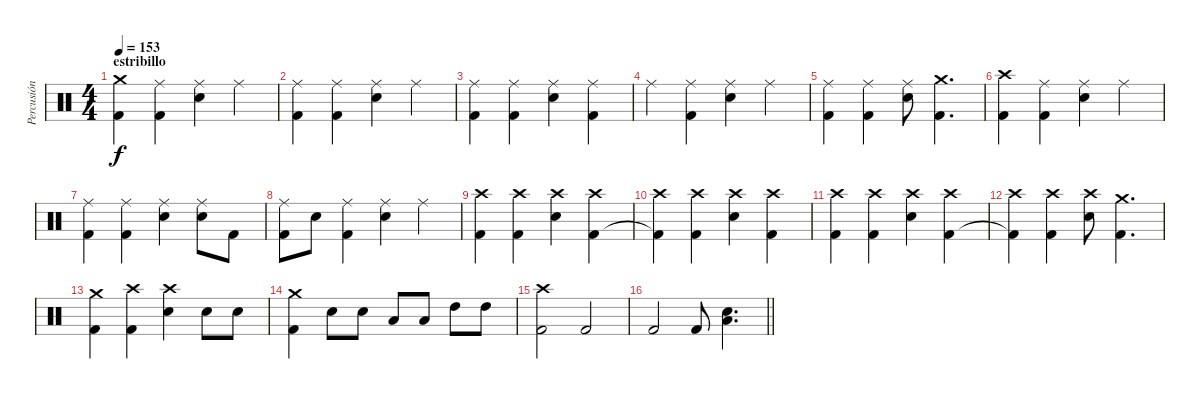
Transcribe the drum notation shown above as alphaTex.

\track ("Percusión" "Percusión") {instrument percussion}
\staff {score}
\articulation defaults
\ts (4 4)
\section ("" "estribillo")
\tempo 153
\clef neutral
\ks c
("Crash medium (hit)" "Kick (hit) 2").4{dy f} ("Ride (middle)" "Kick (hit) 2").4 ("Ride (middle)" "Electric Snare (hit)").4 "Ride (middle)".4 |
("Ride (middle)" "Kick (hit) 2").4 ("Ride (middle)" "Kick (hit) 2").4 ("Ride (middle)" "Electric Snare (hit)").4 "Ride (middle)".4 |
("Ride (middle)" "Kick (hit) 2").4 ("Ride (middle)" "Kick (hit) 2").4 ("Ride (middle)" "Electric Snare (hit)").4 ("Ride (middle)" "Kick (hit) 2").4 |
"Ride (middle)".4 ("Ride (middle)" "Kick (hit) 2").4 ("Ride (middle)" "Electric Snare (hit)").4 "Ride (middle)".4 |
("Ride (middle)" "Kick (hit) 2").4 ("Ride (middle)" "Kick (hit) 2").4 ("Ride (middle)" "Electric Snare (hit)").8 ("Crash medium (hit)" "Kick (hit) 2").4{d} |
("Crash high (hit)" "Kick (hit) 2").4 ("Ride (middle)" "Kick (hit) 2").4 ("Ride (middle)" "Electric Snare (hit)").4 "Ride (middle)".4 |
("Ride (middle)" "Kick (hit) 2").4 ("Ride (middle)" "Kick (hit) 2").4 ("Ride (middle)" "Electric Snare (hit)").4 ("Ride (middle)" "Electric Snare (hit)").8 "Kick (hit) 2".8 |
("Ride (middle)" "Kick (hit) 2").8 "Electric Snare (hit)".8 ("Ride (middle)" "Kick (hit) 2").4 ("Ride (middle)" "Electric Snare (hit)").4 "Ride (middle)".4 |
("Kick (hit) 2" "Crash high (hit)").4 ("Kick (hit) 2" "Crash high (hit)").4 ("Electric Snare (hit)" "Crash high (hit)").4 ("Kick (hit) 2" "Crash high (hit)").4 |
("Kick (hit) 2"{t} "Crash high (hit)").4 ("Kick (hit) 2" "Crash high (hit)").4 ("Electric Snare (hit)" "Crash high (hit)").4 ("Kick (hit) 2" "Crash high (hit)").4 |
("Kick (hit) 2" "Crash high (hit)").4 ("Kick (hit) 2" "Crash high (hit)").4 ("Electric Snare (hit)" "Crash high (hit)").4 ("Kick (hit) 2" "Crash high (hit)").4 |
("Kick (hit) 2"{t} "Crash high (hit)").4 ("Kick (hit) 2" "Crash high (hit)").4 ("Electric Snare (hit)" "Crash high (hit)").8 ("Kick (hit) 2" "Crash medium (hit)").4{d} |
("Kick (hit) 2" "Crash medium (hit)").4 ("Kick (hit) 2" "Crash high (hit)").4 ("Electric Snare (hit)" "Crash high (hit)").4 "Electric Snare (hit)".8 "Electric Snare (hit)".8 |
("Kick (hit) 2" "Crash medium (hit)").4 "Electric Snare (hit)".8 "Electric Snare (hit)".8 "Low Tom (hit)".8 "Low Tom (hit)".8 "High Tom (hit)".8 "High Tom (hit)".8 |
("Kick (hit) 2" "Crash high (hit)").2 "Kick (hit) 2".2 |
\barLineRight lightlight "Kick (hit) 2".2 "Kick (hit) 2".8
("Electric Snare (hit)" "Low Floor Tom (hit)").4{d}
